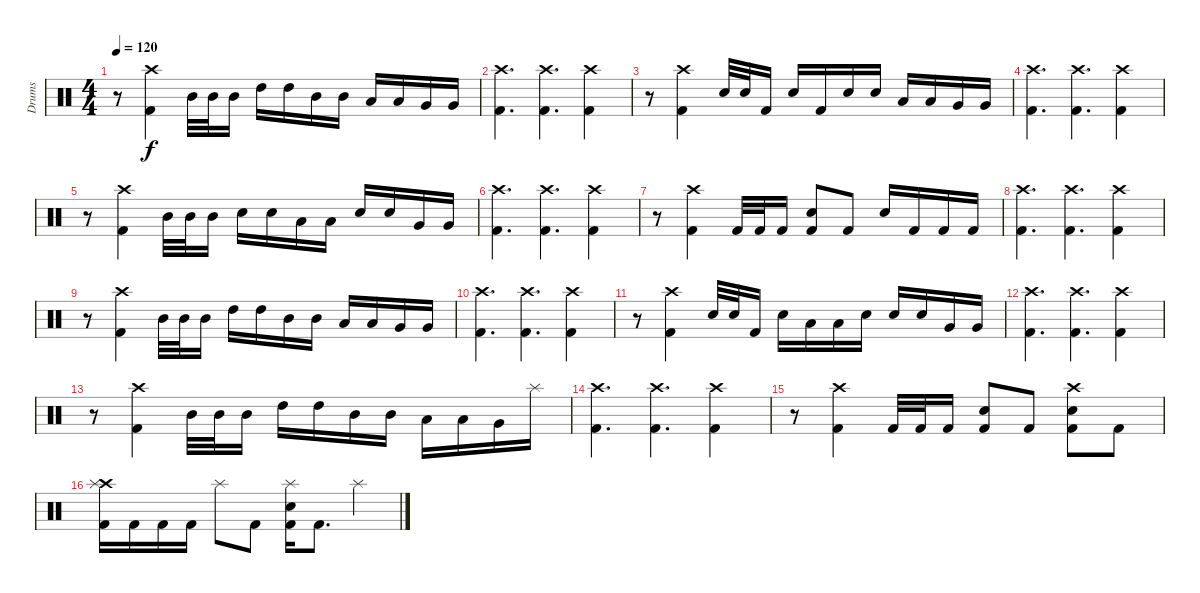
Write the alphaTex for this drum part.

\track ("Drums" "Drums") {instrument percussion}
\staff {score}
\articulation defaults
\ts (4 4)
\tempo 120
\clef neutral
\ks c
r.8{dy f} ("Crash high (hit)" "Kick (hit) 2").4 "Mid Tom (hit)".32 "Mid Tom (hit)".32 "Mid Tom (hit)".16 "High Tom (hit)".16 "High Tom (hit)".16 "Mid Tom (hit)".16 "Mid Tom (hit)".16 "Low Tom (hit)".16 "Low Tom (hit)".16 "Very Low Tom (hit)".16 "Very Low Tom (hit)".16 |
("Crash high (hit)" "Kick (hit) 2").4{d} ("Crash high (hit)" "Kick (hit) 2").4{d} ("Crash high (hit)" "Kick (hit) 2").4 |
r.8 ("Crash high (hit)" "Kick (hit) 2").4 "Electric Snare (hit)".32 "Electric Snare (hit)".32 "Kick (hit) 2".16 "Electric Snare (hit)".16 "Kick (hit) 2".16 "Electric Snare (hit)".16 "Electric Snare (hit)".16 "Low Tom (hit)".16 "Low Tom (hit)".16 "Very Low Tom (hit)".16 "Very Low Tom (hit)".16 |
("Crash high (hit)" "Kick (hit) 2").4{d} ("Crash high (hit)" "Kick (hit) 2").4{d} ("Crash high (hit)" "Kick (hit) 2").4 |
r.8 ("Crash high (hit)" "Kick (hit) 2").4 "Mid Tom (hit)".32 "Mid Tom (hit)".32 "Mid Tom (hit)".16 "Electric Snare (hit)".16 "Electric Snare (hit)".16 "Low Tom (hit)".16 "Low Tom (hit)".16 "Electric Snare (hit)".16 "Electric Snare (hit)".16 "Very Low Tom (hit)".16 "Very Low Tom (hit)".16 |
("Crash high (hit)" "Kick (hit) 2").4{d} ("Crash high (hit)" "Kick (hit) 2").4{d} ("Crash high (hit)" "Kick (hit) 2").4 |
r.8 ("Crash high (hit)" "Kick (hit) 2").4 "Kick (hit) 2".32 "Kick (hit) 2".32 "Kick (hit) 2".16 ("Electric Snare (hit)" "Kick (hit) 2").8 "Kick (hit) 2".8 "Snare (hit) 2".16 "Kick (hit) 2".16 "Kick (hit) 2".16 "Kick (hit) 2".16 |
("Crash high (hit)" "Kick (hit) 2").4{d} ("Crash high (hit)" "Kick (hit) 2").4{d} ("Crash high (hit)" "Kick (hit) 2").4 |
r.8 ("Crash high (hit)" "Kick (hit) 2").4 "Mid Tom (hit)".32 "Mid Tom (hit)".32 "Mid Tom (hit)".16 "High Tom (hit)".16 "High Tom (hit)".16 "Mid Tom (hit)".16 "Mid Tom (hit)".16 "Low Tom (hit)".16 "Low Tom (hit)".16 "Very Low Tom (hit)".16 "Very Low Tom (hit)".16 |
("Crash high (hit)" "Kick (hit) 2").4{d} ("Crash high (hit)" "Kick (hit) 2").4{d} ("Crash high (hit)" "Kick (hit) 2").4 |
r.8 ("Crash high (hit)" "Kick (hit) 2").4 "Electric Snare (hit)".32 "Electric Snare (hit)".32 "Kick (hit) 2".16 "Electric Snare (hit)".16 "Low Tom (hit)".16 "Low Tom (hit)".16 "Electric Snare (hit)".16 "Electric Snare (hit)".16 "Electric Snare (hit)".16 "Very Low Tom (hit)".16 "Very Low Tom (hit)".16 |
("Crash high (hit)" "Kick (hit) 2").4{d} ("Crash high (hit)" "Kick (hit) 2").4{d} ("Crash high (hit)" "Kick (hit) 2").4 |
r.8 ("Crash high (hit)" "Kick (hit) 2").4 "Mid Tom (hit)".32 "Mid Tom (hit)".32 "Mid Tom (hit)".16 "High Tom (hit)".16 "High Tom (hit)".16 "Mid Tom (hit)".16 "Mid Tom (hit)".16 "Low Tom (hit)".16 "Low Tom (hit)".16 "Very Low Tom (hit)".16 "Splash (hit)".16 |
("Crash high (hit)" "Kick (hit) 2").4{d} ("Crash high (hit)" "Kick (hit) 2").4{d} ("Crash high (hit)" "Kick (hit) 2").4 |
r.8 ("Crash high (hit)" "Kick (hit) 2").4 "Kick (hit) 2".32 "Kick (hit) 2".32 "Kick (hit) 2".16 ("Electric Snare (hit)" "Kick (hit) 2").8 "Kick (hit) 2".8 ("Crash high (hit)" "Electric Snare (hit)" "Kick (hit) 2").8 "Kick (hit) 2".8 |
("Crash high (hit)" "Splash (hit)" "Kick (hit) 2").16 "Kick (hit) 2".16 "Kick (hit) 2".16 "Kick (hit) 2".16 "Splash (hit)".8 "Kick (hit) 2".8 ("Splash (hit)" "Electric Snare (hit)" "Kick (hit) 2").16 "Kick (hit) 2".8{d} "Splash (hit)".4
